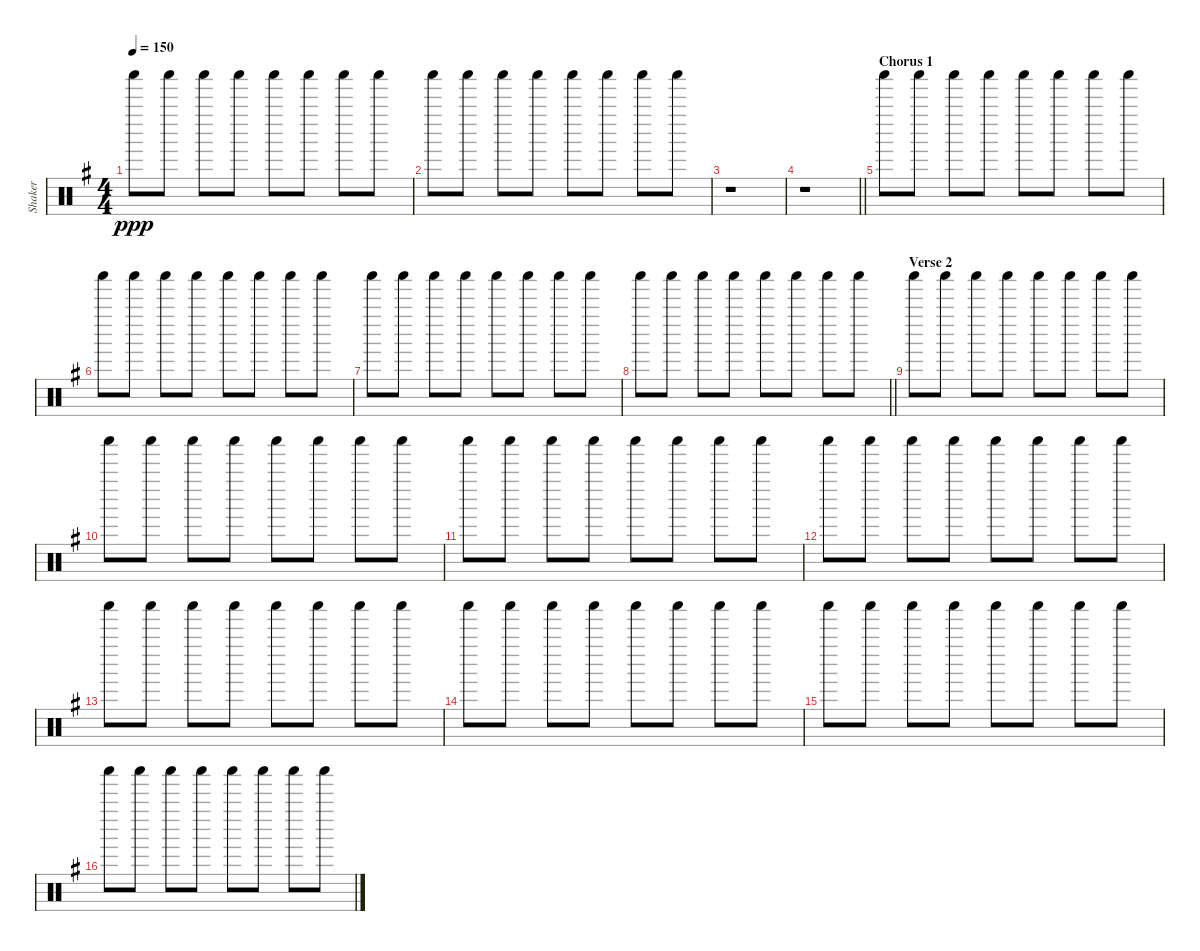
\track ("Shaker" "Shaker") {instrument percussion}
\staff {score}
\articulation defaults
\ts (4 4)
\tempo 150
\clef neutral
\ks g "Shaker (hit)".8{dy ppp} "Shaker (hit)".8 "Shaker (hit)".8 "Shaker (hit)".8 "Shaker (hit)".8 "Shaker (hit)".8 "Shaker (hit)".8 "Shaker (hit)".8
|
"Shaker (hit)".8 "Shaker (hit)".8 "Shaker (hit)".8 "Shaker (hit)".8 "Shaker (hit)".8 "Shaker (hit)".8 "Shaker (hit)".8 "Shaker (hit)".8 |
r.1 |
\barLineRight lightlight
r.1 |
\section ("" "Chorus 1")
"Shaker (hit)".8 "Shaker (hit)".8 "Shaker (hit)".8 "Shaker (hit)".8 "Shaker (hit)".8 "Shaker (hit)".8 "Shaker (hit)".8 "Shaker (hit)".8 |
"Shaker (hit)".8 "Shaker (hit)".8 "Shaker (hit)".8 "Shaker (hit)".8 "Shaker (hit)".8 "Shaker (hit)".8 "Shaker (hit)".8 "Shaker (hit)".8 |
"Shaker (hit)".8 "Shaker (hit)".8 "Shaker (hit)".8 "Shaker (hit)".8 "Shaker (hit)".8 "Shaker (hit)".8 "Shaker (hit)".8 "Shaker (hit)".8 |
\barLineRight lightlight "Shaker (hit)".8 "Shaker (hit)".8 "Shaker (hit)".8 "Shaker (hit)".8 "Shaker (hit)".8 "Shaker (hit)".8 "Shaker (hit)".8 "Shaker (hit)".8
|
\section ("" "Verse 2")
"Shaker (hit)".8 "Shaker (hit)".8 "Shaker (hit)".8 "Shaker (hit)".8 "Shaker (hit)".8 "Shaker (hit)".8 "Shaker (hit)".8 "Shaker (hit)".8 |
"Shaker (hit)".8 "Shaker (hit)".8 "Shaker (hit)".8 "Shaker (hit)".8 "Shaker (hit)".8 "Shaker (hit)".8 "Shaker (hit)".8 "Shaker (hit)".8 |
"Shaker (hit)".8 "Shaker (hit)".8 "Shaker (hit)".8 "Shaker (hit)".8 "Shaker (hit)".8 "Shaker (hit)".8 "Shaker (hit)".8 "Shaker (hit)".8 |
"Shaker (hit)".8 "Shaker (hit)".8 "Shaker (hit)".8 "Shaker (hit)".8 "Shaker (hit)".8 "Shaker (hit)".8 "Shaker (hit)".8 "Shaker (hit)".8 |
"Shaker (hit)".8 "Shaker (hit)".8 "Shaker (hit)".8 "Shaker (hit)".8 "Shaker (hit)".8 "Shaker (hit)".8 "Shaker (hit)".8 "Shaker (hit)".8 |
"Shaker (hit)".8 "Shaker (hit)".8 "Shaker (hit)".8 "Shaker (hit)".8 "Shaker (hit)".8 "Shaker (hit)".8 "Shaker (hit)".8 "Shaker (hit)".8 |
"Shaker (hit)".8 "Shaker (hit)".8 "Shaker (hit)".8 "Shaker (hit)".8 "Shaker (hit)".8 "Shaker (hit)".8 "Shaker (hit)".8 "Shaker (hit)".8 |
"Shaker (hit)".8 "Shaker (hit)".8 "Shaker (hit)".8 "Shaker (hit)".8 "Shaker (hit)".8 "Shaker (hit)".8 "Shaker (hit)".8 "Shaker (hit)".8
